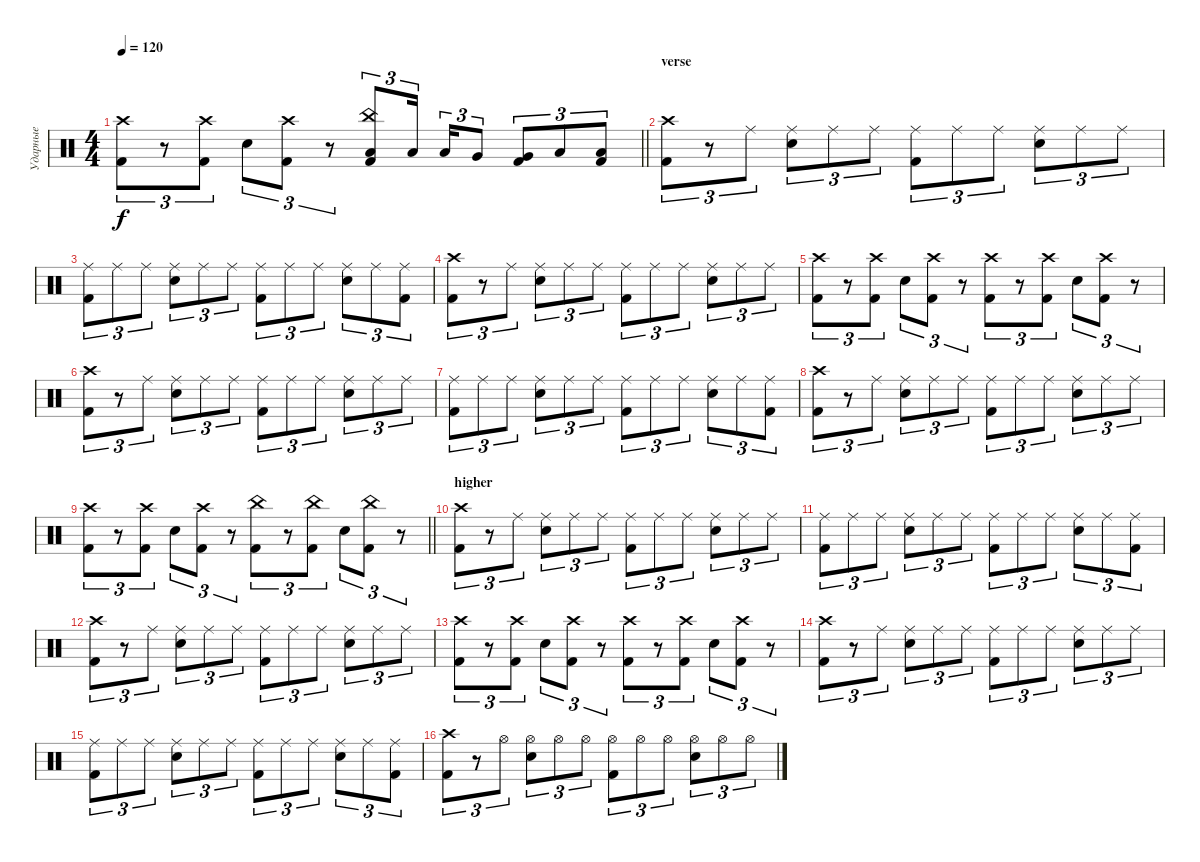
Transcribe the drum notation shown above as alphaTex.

\track ("Ударные" "Ударные") {instrument percussion}
\staff {score}
\articulation defaults
\ts (4 4)
\tempo 120
\clef neutral
\barLineRight lightlight
\ks c
("Crash high (hit)" "Kick (hit) 2").8{tu (3 2) dy f} r.8{tu (3 2)} ("Crash high (hit)" "Kick (hit) 2").8{tu (3 2)} "Snare (hit) 2".8{tu (3 2)} ("Crash high (hit)" "Kick (hit) 2").8{tu (3 2)} r.8{tu (3 2)} ("China (hit)" "Low Tom (hit)" "Kick (hit) 2").8{tu (3 2)} "Low Tom (hit)".16{tu (3 2) beam splitsecondary} "Low Tom (hit)".16{tu (3 2)} "Very Low Tom (hit)".8{tu (3 2)} ("Very Low Tom (hit)" "Kick (hit) 2").8{tu (3 2)} "Low Floor Tom (hit)".8{tu (3 2)} ("Low Floor Tom (hit)" "Kick (hit) 2").8{tu (3 2)} |
\section ("" "verse")
("Crash high (hit)" "Kick (hit) 2").8{tu (3 2)} r.8{tu (3 2)} "Ride (middle)".8{tu (3 2)} ("Ride (middle)" "Snare (hit) 2").8{tu (3 2)} "Ride (middle)".8{tu (3 2)} "Ride (middle)".8{tu (3 2)} ("Ride (middle)" "Kick (hit) 2").8{tu (3 2)} "Ride (middle)".8{tu (3 2)} "Ride (middle)".8{tu (3 2)} ("Ride (middle)" "Snare (hit) 2").8{tu (3 2)} "Ride (middle)".8{tu (3 2)} "Ride (middle)".8{tu (3 2)} |
("Ride (middle)" "Kick (hit) 2").8{tu (3 2)} "Ride (middle)".8{tu (3 2)} "Ride (middle)".8{tu (3 2)} ("Ride (middle)" "Snare (hit) 2").8{tu (3 2)} "Ride (middle)".8{tu (3 2)} "Ride (middle)".8{tu (3 2)} ("Ride (middle)" "Kick (hit) 2").8{tu (3 2)} "Ride (middle)".8{tu (3 2)} "Ride (middle)".8{tu (3 2)} ("Ride (middle)" "Snare (hit) 2").8{tu (3 2)} "Ride (middle)".8{tu (3 2)} ("Ride (middle)" "Kick (hit) 2").8{tu (3 2)} |
("Crash high (hit)" "Kick (hit) 2").8{tu (3 2)} r.8{tu (3 2)} "Ride (middle)".8{tu (3 2)} ("Ride (middle)" "Snare (hit) 2").8{tu (3 2)} "Ride (middle)".8{tu (3 2)} "Ride (middle)".8{tu (3 2)} ("Ride (middle)" "Kick (hit) 2").8{tu (3 2)} "Ride (middle)".8{tu (3 2)} "Ride (middle)".8{tu (3 2)} ("Ride (middle)" "Snare (hit) 2").8{tu (3 2)} "Ride (middle)".8{tu (3 2)} "Ride (middle)".8{tu (3 2)} |
("Crash high (hit)" "Kick (hit) 2").8{tu (3 2)} r.8{tu (3 2)} ("Crash high (hit)" "Kick (hit) 2").8{tu (3 2)} "Snare (hit) 2".8{tu (3 2)} ("Crash high (hit)" "Kick (hit) 2").8{tu (3 2)} r.8{tu (3 2)} ("Crash high (hit)" "Kick (hit) 2").8{tu (3 2)} r.8{tu (3 2)} ("Crash high (hit)" "Kick (hit) 2").8{tu (3 2)} "Snare (hit) 2".8{tu (3 2)} ("Crash high (hit)" "Kick (hit) 2").8{tu (3 2)} r.8{tu (3 2)} |
("Crash high (hit)" "Kick (hit) 2").8{tu (3 2)} r.8{tu (3 2)} "Ride (middle)".8{tu (3 2)} ("Ride (middle)" "Snare (hit) 2").8{tu (3 2)} "Ride (middle)".8{tu (3 2)} "Ride (middle)".8{tu (3 2)} ("Ride (middle)" "Kick (hit) 2").8{tu (3 2)} "Ride (middle)".8{tu (3 2)} "Ride (middle)".8{tu (3 2)} ("Ride (middle)" "Snare (hit) 2").8{tu (3 2)} "Ride (middle)".8{tu (3 2)} "Ride (middle)".8{tu (3 2)} |
("Ride (middle)" "Kick (hit) 2").8{tu (3 2)} "Ride (middle)".8{tu (3 2)} "Ride (middle)".8{tu (3 2)} ("Ride (middle)" "Snare (hit) 2").8{tu (3 2)} "Ride (middle)".8{tu (3 2)} "Ride (middle)".8{tu (3 2)} ("Ride (middle)" "Kick (hit) 2").8{tu (3 2)} "Ride (middle)".8{tu (3 2)} "Ride (middle)".8{tu (3 2)} ("Ride (middle)" "Snare (hit) 2").8{tu (3 2)} "Ride (middle)".8{tu (3 2)} ("Ride (middle)" "Kick (hit) 2").8{tu (3 2)} |
("Crash high (hit)" "Kick (hit) 2").8{tu (3 2)} r.8{tu (3 2)} "Ride (middle)".8{tu (3 2)} ("Ride (middle)" "Snare (hit) 2").8{tu (3 2)} "Ride (middle)".8{tu (3 2)} "Ride (middle)".8{tu (3 2)} ("Ride (middle)" "Kick (hit) 2").8{tu (3 2)} "Ride (middle)".8{tu (3 2)} "Ride (middle)".8{tu (3 2)} ("Ride (middle)" "Snare (hit) 2").8{tu (3 2)} "Ride (middle)".8{tu (3 2)} "Ride (middle)".8{tu (3 2)} |
\barLineRight lightlight
("Crash high (hit)" "Kick (hit) 2").8{tu (3 2)} r.8{tu (3 2)} ("Crash high (hit)" "Kick (hit) 2").8{tu (3 2)} "Snare (hit) 2".8{tu (3 2)} ("Crash high (hit)" "Kick (hit) 2").8{tu (3 2)} r.8{tu (3 2)} ("China (hit)" "Kick (hit) 2").8{tu (3 2)} r.8{tu (3 2)} ("China (hit)" "Kick (hit) 2").8{tu (3 2)} "Snare (hit) 2".8{tu (3 2)} ("China (hit)" "Kick (hit) 2").8{tu (3 2)} r.8{tu (3 2)} |
\section ("" "higher")
("Crash high (hit)" "Kick (hit) 2").8{tu (3 2)} r.8{tu (3 2)} "Ride (middle)".8{tu (3 2)} ("Ride (middle)" "Snare (hit) 2").8{tu (3 2)} "Ride (middle)".8{tu (3 2)} "Ride (middle)".8{tu (3 2)} ("Ride (middle)" "Kick (hit) 2").8{tu (3 2)} "Ride (middle)".8{tu (3 2)} "Ride (middle)".8{tu (3 2)} ("Ride (middle)" "Snare (hit) 2").8{tu (3 2)} "Ride (middle)".8{tu (3 2)} "Ride (middle)".8{tu (3 2)} |
("Ride (middle)" "Kick (hit) 2").8{tu (3 2)} "Ride (middle)".8{tu (3 2)} "Ride (middle)".8{tu (3 2)} ("Ride (middle)" "Snare (hit) 2").8{tu (3 2)} "Ride (middle)".8{tu (3 2)} "Ride (middle)".8{tu (3 2)} ("Ride (middle)" "Kick (hit) 2").8{tu (3 2)} "Ride (middle)".8{tu (3 2)} "Ride (middle)".8{tu (3 2)} ("Ride (middle)" "Snare (hit) 2").8{tu (3 2)} "Ride (middle)".8{tu (3 2)} ("Ride (middle)" "Kick (hit) 2").8{tu (3 2)} |
("Crash high (hit)" "Kick (hit) 2").8{tu (3 2)} r.8{tu (3 2)} "Ride (middle)".8{tu (3 2)} ("Ride (middle)" "Snare (hit) 2").8{tu (3 2)} "Ride (middle)".8{tu (3 2)} "Ride (middle)".8{tu (3 2)} ("Ride (middle)" "Kick (hit) 2").8{tu (3 2)} "Ride (middle)".8{tu (3 2)} "Ride (middle)".8{tu (3 2)} ("Ride (middle)" "Snare (hit) 2").8{tu (3 2)} "Ride (middle)".8{tu (3 2)} "Ride (middle)".8{tu (3 2)} |
("Crash high (hit)" "Kick (hit) 2").8{tu (3 2)} r.8{tu (3 2)} ("Crash high (hit)" "Kick (hit) 2").8{tu (3 2)} "Snare (hit) 2".8{tu (3 2)} ("Crash high (hit)" "Kick (hit) 2").8{tu (3 2)} r.8{tu (3 2)} ("Crash high (hit)" "Kick (hit) 2").8{tu (3 2)} r.8{tu (3 2)} ("Crash high (hit)" "Kick (hit) 2").8{tu (3 2)} "Snare (hit) 2".8{tu (3 2)} ("Crash high (hit)" "Kick (hit) 2").8{tu (3 2)} r.8{tu (3 2)} |
("Crash high (hit)" "Kick (hit) 2").8{tu (3 2)} r.8{tu (3 2)} "Ride (middle)".8{tu (3 2)} ("Ride (middle)" "Snare (hit) 2").8{tu (3 2)} "Ride (middle)".8{tu (3 2)} "Ride (middle)".8{tu (3 2)} ("Ride (middle)" "Kick (hit) 2").8{tu (3 2)} "Ride (middle)".8{tu (3 2)} "Ride (middle)".8{tu (3 2)} ("Ride (middle)" "Snare (hit) 2").8{tu (3 2)} "Ride (middle)".8{tu (3 2)} "Ride (middle)".8{tu (3 2)} |
("Ride (middle)" "Kick (hit) 2").8{tu (3 2)} "Ride (middle)".8{tu (3 2)} "Ride (middle)".8{tu (3 2)} ("Ride (middle)" "Snare (hit) 2").8{tu (3 2)} "Ride (middle)".8{tu (3 2)} "Ride (middle)".8{tu (3 2)} ("Ride (middle)" "Kick (hit) 2").8{tu (3 2)} "Ride (middle)".8{tu (3 2)} "Ride (middle)".8{tu (3 2)} ("Ride (middle)" "Snare (hit) 2").8{tu (3 2)} "Ride (middle)".8{tu (3 2)} ("Ride (middle)" "Kick (hit) 2").8{tu (3 2)} |
("Crash high (hit)" "Kick (hit) 2").8{tu (3 2)} r.8{tu (3 2)} "Hi-Hat (open)".8{tu (3 2)} ("Hi-Hat (open)" "Snare (hit) 2").8{tu (3 2)} "Hi-Hat (open)".8{tu (3 2)} "Hi-Hat (open)".8{tu (3 2)} ("Hi-Hat (open)" "Kick (hit) 2").8{tu (3 2)} "Hi-Hat (open)".8{tu (3 2)} "Hi-Hat (open)".8{tu (3 2)} ("Hi-Hat (open)" "Snare (hit) 2").8{tu (3 2)} "Hi-Hat (open)".8{tu (3 2)} "Hi-Hat (open)".8{tu (3 2)}
